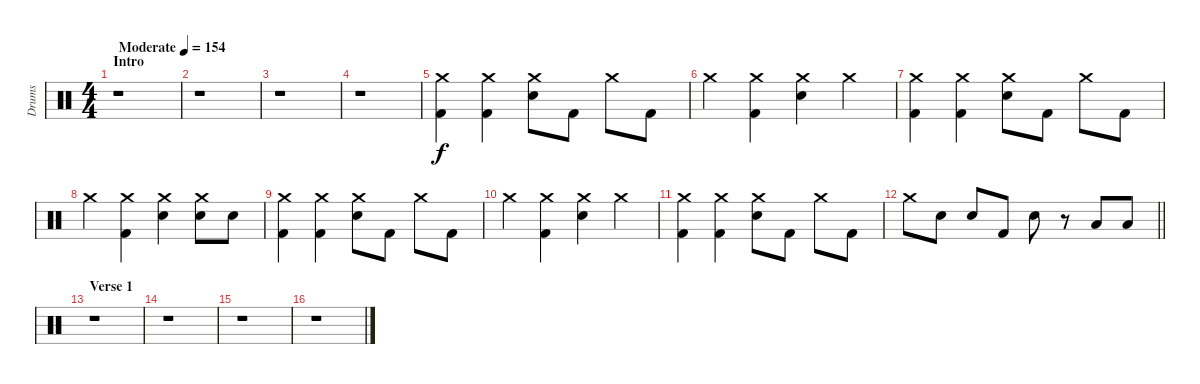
\track ("Drums" "Drums") {instrument percussion}
\staff {score}
\articulation defaults
\ts (4 4)
\section ("" "Intro")
\tempo (154 "Moderate")
\clef neutral
\ks c
r.1{dy f} |
r.1 |
r.1 |
r.1 |
("Crash medium (hit)" "Kick (hit) 2").4 ("Crash medium (hit)" "Kick (hit) 2").4 ("Crash medium (hit)" "Snare (hit) 2").8 "Kick (hit) 2".8 "Crash medium (hit)".8 "Kick (hit) 2".8 |
"Crash medium (hit)".4 ("Crash medium (hit)" "Kick (hit) 2").4 ("Crash medium (hit)" "Snare (hit) 2").4 "Crash medium (hit)".4 |
("Crash medium (hit)" "Kick (hit) 2").4 ("Crash medium (hit)" "Kick (hit) 2").4 ("Crash medium (hit)" "Snare (hit) 2").8 "Kick (hit) 2".8 "Crash medium (hit)".8 "Kick (hit) 2".8 |
"Crash medium (hit)".4 ("Crash medium (hit)" "Kick (hit) 2").4 ("Crash medium (hit)" "Snare (hit) 2").4 ("Crash medium (hit)" "Snare (hit) 2").8 "Snare (hit) 2".8 |
("Crash medium (hit)" "Kick (hit) 2").4 ("Crash medium (hit)" "Kick (hit) 2").4 ("Crash medium (hit)" "Snare (hit) 2").8 "Kick (hit) 2".8 "Crash medium (hit)".8 "Kick (hit) 2".8 |
"Crash medium (hit)".4 ("Crash medium (hit)" "Kick (hit) 2").4 ("Crash medium (hit)" "Snare (hit) 2").4 "Crash medium (hit)".4 |
("Crash medium (hit)" "Kick (hit) 2").4 ("Crash medium (hit)" "Kick (hit) 2").4 ("Crash medium (hit)" "Snare (hit) 2").8 "Kick (hit) 2".8 "Crash medium (hit)".8 "Kick (hit) 2".8 |
\barLineRight lightlight "Crash medium (hit)".8 "Snare (hit) 2".8 "Snare (hit) 2".8 "Kick (hit) 2".8 "Snare (hit) 2".8
r.8 "Low Floor Tom (hit)".8 "Low Floor Tom (hit)".8 |
\section ("" "Verse 1")
r.1 |
r.1 |
r.1 |
r.1
